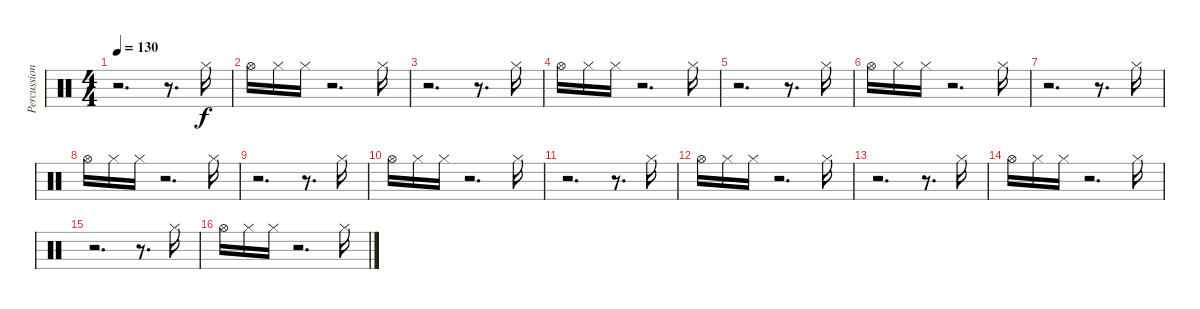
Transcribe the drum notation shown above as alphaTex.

\track ("Percussion" "Percussion") {instrument percussion}
\staff {score}
\articulation defaults
\ts (4 4)
\tempo 130
\clef neutral
\ks c
r.2{d dy f} r.8{d} "Hi-Hat (closed)".16 |
"Hi-Hat (open)".16 "Hi-Hat (closed)".16 "Hi-Hat (closed)".16 r.2{d} "Hi-Hat (closed)".16 |
r.2{d} r.8{d} "Hi-Hat (closed)".16 |
"Hi-Hat (open)".16 "Hi-Hat (closed)".16 "Hi-Hat (closed)".16 r.2{d} "Hi-Hat (closed)".16 |
r.2{d} r.8{d} "Hi-Hat (closed)".16 |
"Hi-Hat (open)".16 "Hi-Hat (closed)".16 "Hi-Hat (closed)".16 r.2{d} "Hi-Hat (closed)".16 |
r.2{d} r.8{d} "Hi-Hat (closed)".16 |
"Hi-Hat (open)".16 "Hi-Hat (closed)".16 "Hi-Hat (closed)".16 r.2{d} "Hi-Hat (closed)".16 |
r.2{d} r.8{d} "Hi-Hat (closed)".16 |
"Hi-Hat (open)".16 "Hi-Hat (closed)".16 "Hi-Hat (closed)".16 r.2{d} "Hi-Hat (closed)".16 |
r.2{d} r.8{d} "Hi-Hat (closed)".16 |
"Hi-Hat (open)".16 "Hi-Hat (closed)".16 "Hi-Hat (closed)".16 r.2{d} "Hi-Hat (closed)".16 |
r.2{d} r.8{d} "Hi-Hat (closed)".16 |
"Hi-Hat (open)".16 "Hi-Hat (closed)".16 "Hi-Hat (closed)".16 r.2{d} "Hi-Hat (closed)".16 |
r.2{d} r.8{d} "Hi-Hat (closed)".16 |
"Hi-Hat (open)".16 "Hi-Hat (closed)".16 "Hi-Hat (closed)".16 r.2{d} "Hi-Hat (closed)".16
